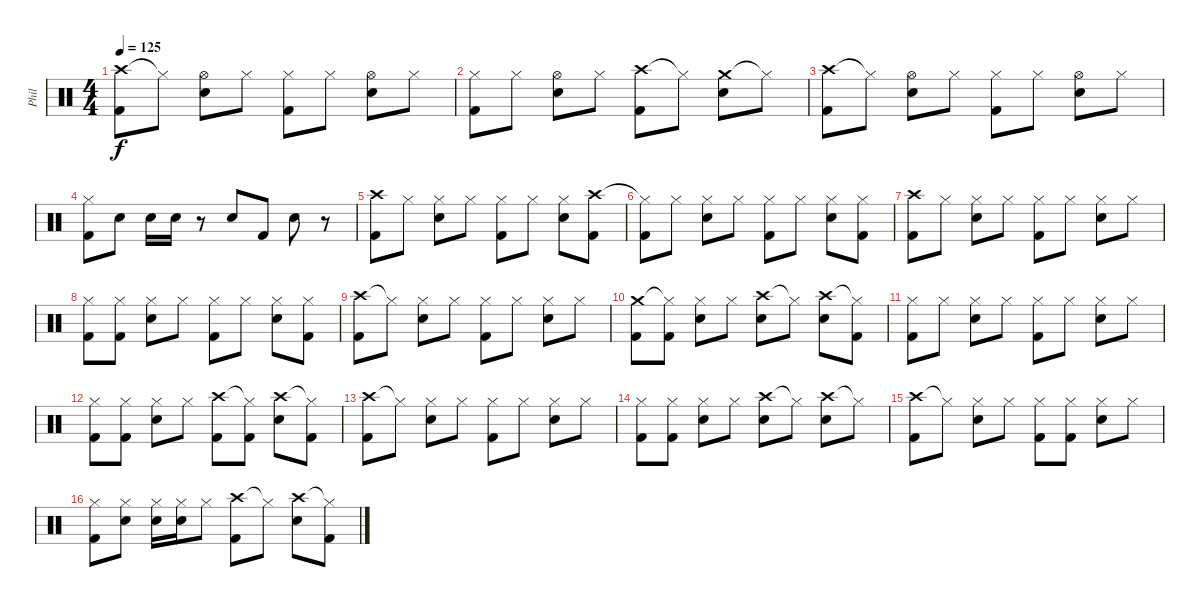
\track ("Phil" "Phil") {instrument percussion}
\staff {score}
\articulation defaults
\ts (4 4)
\tempo 125
\clef neutral
\ks c
("Crash high (hit)" "Kick (hit) 2").8{dy f} "Hi-Hat (closed)"{t}.8 ("Hi-Hat (open)" "Snare (hit) 2").8 "Hi-Hat (closed)".8 ("Hi-Hat (closed)" "Kick (hit) 2").8 "Hi-Hat (closed)".8 ("Hi-Hat (open)" "Snare (hit) 2").8 "Hi-Hat (closed)".8 |
("Hi-Hat (closed)" "Kick (hit) 2").8 "Hi-Hat (closed)".8 ("Hi-Hat (open)" "Snare (hit) 2").8 "Hi-Hat (closed)".8 ("Crash high (hit)" "Kick (hit) 2").8 "Hi-Hat (closed)"{t}.8 ("Crash medium (hit)" "Snare (hit) 2").8 "Hi-Hat (closed)"{t}.8 |
("Crash high (hit)" "Kick (hit) 2").8 "Hi-Hat (closed)"{t}.8 ("Hi-Hat (open)" "Snare (hit) 2").8 "Hi-Hat (closed)".8 ("Hi-Hat (closed)" "Kick (hit) 2").8 "Hi-Hat (closed)".8 ("Hi-Hat (open)" "Snare (hit) 2").8 "Hi-Hat (closed)".8 |
("Hi-Hat (closed)" "Kick (hit) 2").8 "Snare (hit) 2".8 "Snare (hit) 2".16 "Snare (hit) 2".16 r.8 "Snare (hit) 2".8 "Kick (hit) 2".8 "Snare (hit) 2".8 r.8 |
("Crash high (hit)" "Kick (hit) 2").8 "Hi-Hat (closed)".8 ("Hi-Hat (closed)" "Snare (hit) 2").8 "Hi-Hat (closed)".8 ("Hi-Hat (closed)" "Kick (hit) 2").8 "Hi-Hat (closed)".8 ("Hi-Hat (closed)" "Snare (hit) 2").8 ("Crash high (hit)" "Kick (hit) 2").8 |
("Hi-Hat (closed)"{t} "Kick (hit) 2").8 "Hi-Hat (closed)".8 ("Hi-Hat (closed)" "Snare (hit) 2").8 "Hi-Hat (closed)".8 ("Hi-Hat (closed)" "Kick (hit) 2").8 "Hi-Hat (closed)".8 ("Hi-Hat (closed)" "Snare (hit) 2").8 ("Hi-Hat (closed)" "Kick (hit) 2").8 |
("Crash high (hit)" "Kick (hit) 2").8 "Hi-Hat (closed)".8 ("Hi-Hat (closed)" "Snare (hit) 2").8 "Hi-Hat (closed)".8 ("Hi-Hat (closed)" "Kick (hit) 2").8 "Hi-Hat (closed)".8 ("Hi-Hat (closed)" "Snare (hit) 2").8 "Hi-Hat (closed)".8 |
("Hi-Hat (closed)" "Kick (hit) 2").8 ("Hi-Hat (closed)" "Kick (hit) 2").8 ("Hi-Hat (closed)" "Snare (hit) 2").8 "Hi-Hat (closed)".8 ("Hi-Hat (closed)" "Kick (hit) 2").8 "Hi-Hat (closed)".8 ("Hi-Hat (closed)" "Snare (hit) 2").8 ("Hi-Hat (closed)" "Kick (hit) 2").8 |
("Crash high (hit)" "Kick (hit) 2").8 "Hi-Hat (closed)"{t}.8 ("Hi-Hat (closed)" "Snare (hit) 2").8 "Hi-Hat (closed)".8 ("Hi-Hat (closed)" "Kick (hit) 2").8 "Hi-Hat (closed)".8 ("Hi-Hat (closed)" "Snare (hit) 2").8 "Hi-Hat (closed)".8 |
("Crash medium (hit)" "Kick (hit) 2").8 ("Hi-Hat (closed)"{t} "Kick (hit) 2").8 ("Hi-Hat (closed)" "Snare (hit) 2").8 "Hi-Hat (closed)".8 ("Crash high (hit)" "Snare (hit) 2").8 "Hi-Hat (closed)"{t}.8 ("Crash high (hit)" "Snare (hit) 2").8 ("Hi-Hat (closed)"{t} "Kick (hit) 2").8 |
("Hi-Hat (closed)" "Kick (hit) 2").8 "Hi-Hat (closed)".8 ("Hi-Hat (closed)" "Snare (hit) 2").8 "Hi-Hat (closed)".8 ("Hi-Hat (closed)" "Kick (hit) 2").8 "Hi-Hat (closed)".8 ("Hi-Hat (closed)" "Snare (hit) 2").8 "Hi-Hat (closed)".8 |
("Hi-Hat (closed)" "Kick (hit) 2").8 ("Hi-Hat (closed)" "Kick (hit) 2").8 ("Hi-Hat (closed)" "Snare (hit) 2").8 "Hi-Hat (closed)".8 ("Crash high (hit)" "Kick (hit) 2").8 ("Hi-Hat (closed)"{t} "Kick (hit) 2").8 ("Crash high (hit)" "Snare (hit) 2").8 ("Hi-Hat (closed)"{t} "Kick (hit) 2").8 |
("Crash high (hit)" "Kick (hit) 2").8 "Hi-Hat (closed)"{t}.8 ("Hi-Hat (closed)" "Snare (hit) 2").8 "Hi-Hat (closed)".8 ("Hi-Hat (closed)" "Kick (hit) 2").8 "Hi-Hat (closed)".8 ("Hi-Hat (closed)" "Snare (hit) 2").8 "Hi-Hat (closed)".8 |
("Hi-Hat (closed)" "Kick (hit) 2").8 ("Hi-Hat (closed)" "Kick (hit) 2").8 ("Hi-Hat (closed)" "Snare (hit) 2").8 "Hi-Hat (closed)".8 ("Crash high (hit)" "Snare (hit) 2").8 "Hi-Hat (closed)"{t}.8 ("Crash high (hit)" "Snare (hit) 2").8 "Hi-Hat (closed)"{t}.8 |
("Crash high (hit)" "Kick (hit) 2").8 "Hi-Hat (closed)"{t}.8 ("Hi-Hat (closed)" "Snare (hit) 2").8 "Hi-Hat (closed)".8 ("Hi-Hat (closed)" "Kick (hit) 2").8 ("Hi-Hat (closed)" "Kick (hit) 2").8 ("Hi-Hat (closed)" "Snare (hit) 2").8 "Hi-Hat (closed)".8 |
("Hi-Hat (closed)" "Kick (hit) 2").8 ("Hi-Hat (closed)" "Snare (hit) 2").8 ("Hi-Hat (closed)" "Snare (hit) 2").16 ("Hi-Hat (closed)" "Snare (hit) 2").16 "Hi-Hat (closed)".8 ("Crash high (hit)" "Kick (hit) 2").8 "Hi-Hat (closed)"{t}.8 ("Crash high (hit)" "Snare (hit) 2").8 ("Hi-Hat (closed)"{t} "Kick (hit) 2").8
